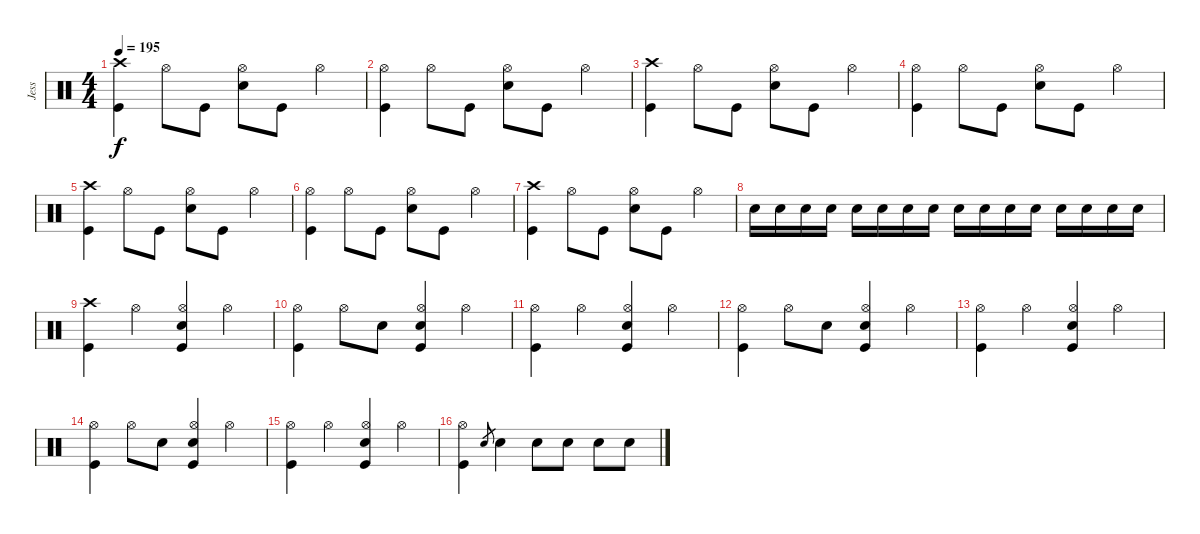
\track ("Jess" "Jess") {instrument percussion}
\staff {score}
\articulation defaults
\ts (4 4)
\tempo 195
\clef neutral
\ks c
("Crash high (hit)" "Kick (hit)").4{dy f} "Hi-Hat (open)".8 "Kick (hit)".8 ("Hi-Hat (open)" "Electric Snare (hit)").8 "Kick (hit)".8 "Hi-Hat (open)".4 |
("Hi-Hat (open)" "Kick (hit)").4 "Hi-Hat (open)".8 "Kick (hit)".8 ("Hi-Hat (open)" "Electric Snare (hit)").8 "Kick (hit)".8 "Hi-Hat (open)".4 |
("Crash high (hit)" "Kick (hit)").4 "Hi-Hat (open)".8 "Kick (hit)".8 ("Hi-Hat (open)" "Electric Snare (hit)").8 "Kick (hit)".8 "Hi-Hat (open)".4 |
("Hi-Hat (open)" "Kick (hit)").4 "Hi-Hat (open)".8 "Kick (hit)".8 ("Hi-Hat (open)" "Electric Snare (hit)").8 "Kick (hit)".8 "Hi-Hat (open)".4 |
("Crash high (hit)" "Kick (hit)").4 "Hi-Hat (open)".8 "Kick (hit)".8 ("Hi-Hat (open)" "Electric Snare (hit)").8 "Kick (hit)".8 "Hi-Hat (open)".4 |
("Hi-Hat (open)" "Kick (hit)").4 "Hi-Hat (open)".8 "Kick (hit)".8 ("Hi-Hat (open)" "Electric Snare (hit)").8 "Kick (hit)".8 "Hi-Hat (open)".4 |
("Crash high (hit)" "Kick (hit)").4 "Hi-Hat (open)".8 "Kick (hit)".8 ("Hi-Hat (open)" "Electric Snare (hit)").8 "Kick (hit)".8 "Hi-Hat (open)".4 |
"Electric Snare (hit)".16 "Electric Snare (hit)".16 "Electric Snare (hit)".16 "Electric Snare (hit)".16 "Electric Snare (hit)".16 "Electric Snare (hit)".16 "Electric Snare (hit)".16 "Electric Snare (hit)".16 "Electric Snare (hit)".16 "Electric Snare (hit)".16 "Electric Snare (hit)".16 "Electric Snare (hit)".16 "Electric Snare (hit)".16 "Electric Snare (hit)".16 "Electric Snare (hit)".16 "Electric Snare (hit)".16 |
("Crash high (hit)" "Kick (hit)").4 "Hi-Hat (open)".4 ("Hi-Hat (open)" "Electric Snare (hit)" "Kick (hit)").4 "Hi-Hat (open)".4 |
("Hi-Hat (open)" "Kick (hit)").4 "Hi-Hat (open)".8 "Electric Snare (hit)".8 ("Hi-Hat (open)" "Electric Snare (hit)" "Kick (hit)").4 "Hi-Hat (open)".4 |
("Hi-Hat (open)" "Kick (hit)").4 "Hi-Hat (open)".4 ("Hi-Hat (open)" "Electric Snare (hit)" "Kick (hit)").4 "Hi-Hat (open)".4 |
("Hi-Hat (open)" "Kick (hit)").4 "Hi-Hat (open)".8 "Electric Snare (hit)".8 ("Hi-Hat (open)" "Electric Snare (hit)" "Kick (hit)").4 "Hi-Hat (open)".4 |
("Hi-Hat (open)" "Kick (hit)").4 "Hi-Hat (open)".4 ("Hi-Hat (open)" "Electric Snare (hit)" "Kick (hit)").4 "Hi-Hat (open)".4 |
("Hi-Hat (open)" "Kick (hit)").4 "Hi-Hat (open)".8 "Electric Snare (hit)".8 ("Hi-Hat (open)" "Electric Snare (hit)" "Kick (hit)").4 "Hi-Hat (open)".4 |
("Hi-Hat (open)" "Kick (hit)").4 "Hi-Hat (open)".4 ("Hi-Hat (open)" "Electric Snare (hit)" "Kick (hit)").4 "Hi-Hat (open)".4 |
("Hi-Hat (open)" "Kick (hit)").4 "Electric Snare (hit)".8{gr} "Electric Snare (hit)".4 "Electric Snare (hit)".8 "Electric Snare (hit)".8 "Electric Snare (hit)".8 "Electric Snare (hit)".8
